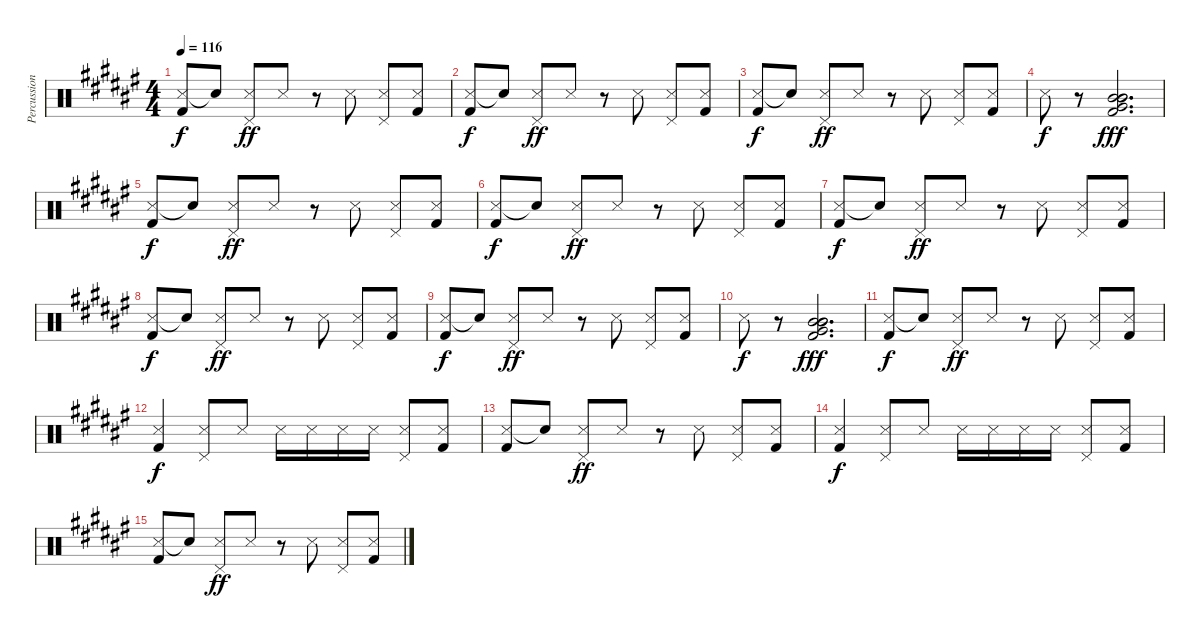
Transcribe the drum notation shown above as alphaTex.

\track ("Percussion" "Percussion") {instrument percussion}
\staff {score}
\articulation defaults
\ts (4 4)
\tempo 116
\clef neutral
\ks f#
("Snare (side stick) 3" "Kick (hit) 2").8{dy f} "Snare (hit)"{t}.8 ("Snare (side stick) 3" "Pedal Hi-Hat (hit)").8{dy ff} "Snare (side stick) 3".8 r.8 "Snare (side stick) 3".8 ("Snare (side stick) 3" "Pedal Hi-Hat (hit)").8 ("Snare (side stick) 3" "Kick (hit) 2").8 |
("Snare (side stick) 3" "Kick (hit) 2").8{dy f} "Snare (hit)"{t}.8 ("Snare (side stick) 3" "Pedal Hi-Hat (hit)").8{dy ff} "Snare (side stick) 3".8 r.8 "Snare (side stick) 3".8 ("Snare (side stick) 3" "Pedal Hi-Hat (hit)").8 ("Snare (side stick) 3" "Kick (hit) 2").8 |
("Snare (side stick) 3" "Kick (hit) 2").8{dy f} "Snare (hit)"{t}.8 ("Snare (side stick) 3" "Pedal Hi-Hat (hit)").8{dy ff} "Snare (side stick) 3".8 r.8 "Snare (side stick) 3".8 ("Snare (side stick) 3" "Pedal Hi-Hat (hit)").8 ("Snare (side stick) 3" "Kick (hit) 2").8 |
"Snare (side stick) 3".8{dy f} r.8 ("Mid Tom (hit)" "Mid Tom (hit)" "Mid Tom (hit)" "Very Low Tom (hit)" "Kick (hit) 2").2{d dy fff} |
("Snare (side stick) 3" "Kick (hit) 2").8{dy f} "Snare (hit)"{t}.8 ("Snare (side stick) 3" "Pedal Hi-Hat (hit)").8{dy ff} "Snare (side stick) 3".8 r.8 "Snare (side stick) 3".8 ("Snare (side stick) 3" "Pedal Hi-Hat (hit)").8 ("Snare (side stick) 3" "Kick (hit) 2").8 |
("Snare (side stick) 3" "Kick (hit) 2").8{dy f} "Snare (hit)"{t}.8 ("Snare (side stick) 3" "Pedal Hi-Hat (hit)").8{dy ff} "Snare (side stick) 3".8 r.8 "Snare (side stick) 3".8 ("Snare (side stick) 3" "Pedal Hi-Hat (hit)").8 ("Snare (side stick) 3" "Kick (hit) 2").8 |
("Snare (side stick) 3" "Kick (hit) 2").8{dy f} "Snare (hit)"{t}.8 ("Snare (side stick) 3" "Pedal Hi-Hat (hit)").8{dy ff} "Snare (side stick) 3".8 r.8 "Snare (side stick) 3".8 ("Snare (side stick) 3" "Pedal Hi-Hat (hit)").8 ("Snare (side stick) 3" "Kick (hit) 2").8 |
("Snare (side stick) 3" "Kick (hit) 2").8{dy f} "Snare (hit)"{t}.8 ("Snare (side stick) 3" "Pedal Hi-Hat (hit)").8{dy ff} "Snare (side stick) 3".8 r.8 "Snare (side stick) 3".8 ("Snare (side stick) 3" "Pedal Hi-Hat (hit)").8 ("Snare (side stick) 3" "Kick (hit) 2").8 |
("Snare (side stick) 3" "Kick (hit) 2").8{dy f} "Snare (hit)"{t}.8 ("Snare (side stick) 3" "Pedal Hi-Hat (hit)").8{dy ff} "Snare (side stick) 3".8 r.8 "Snare (side stick) 3".8 ("Snare (side stick) 3" "Pedal Hi-Hat (hit)").8 ("Snare (side stick) 3" "Kick (hit) 2").8 |
"Snare (side stick) 3".8{dy f} r.8 ("Mid Tom (hit)" "Mid Tom (hit)" "Mid Tom (hit)" "Very Low Tom (hit)" "Kick (hit) 2").2{d dy fff} |
("Snare (side stick) 3" "Kick (hit) 2").8{dy f} "Snare (hit)"{t}.8 ("Snare (side stick) 3" "Pedal Hi-Hat (hit)").8{dy ff} "Snare (side stick) 3".8 r.8 "Snare (side stick) 3".8 ("Snare (side stick) 3" "Pedal Hi-Hat (hit)").8 ("Snare (side stick) 3" "Kick (hit) 2").8 |
("Snare (side stick) 3" "Kick (hit) 2").4{dy f} ("Snare (side stick) 3" "Pedal Hi-Hat (hit)").8 "Snare (side stick) 3".8 "Snare (side stick) 3".16 "Snare (side stick) 3".16 "Snare (side stick) 3".16 "Snare (side stick) 3".16 ("Snare (side stick) 3" "Pedal Hi-Hat (hit)").8 ("Snare (side stick) 3" "Kick (hit) 2").8 |
("Snare (side stick) 3" "Kick (hit) 2").8 "Snare (hit)"{t}.8 ("Snare (side stick) 3" "Pedal Hi-Hat (hit)").8{dy ff} "Snare (side stick) 3".8 r.8 "Snare (side stick) 3".8 ("Snare (side stick) 3" "Pedal Hi-Hat (hit)").8 ("Snare (side stick) 3" "Kick (hit) 2").8 |
("Snare (side stick) 3" "Kick (hit) 2").4{dy f} ("Snare (side stick) 3" "Pedal Hi-Hat (hit)").8 "Snare (side stick) 3".8 "Snare (side stick) 3".16 "Snare (side stick) 3".16 "Snare (side stick) 3".16 "Snare (side stick) 3".16 ("Snare (side stick) 3" "Pedal Hi-Hat (hit)").8 ("Snare (side stick) 3" "Kick (hit) 2").8 |
("Snare (side stick) 3" "Kick (hit) 2").8 "Snare (hit)"{t}.8 ("Snare (side stick) 3" "Pedal Hi-Hat (hit)").8{dy ff} "Snare (side stick) 3".8 r.8 "Snare (side stick) 3".8 ("Snare (side stick) 3" "Pedal Hi-Hat (hit)").8 ("Snare (side stick) 3" "Kick (hit) 2").8
